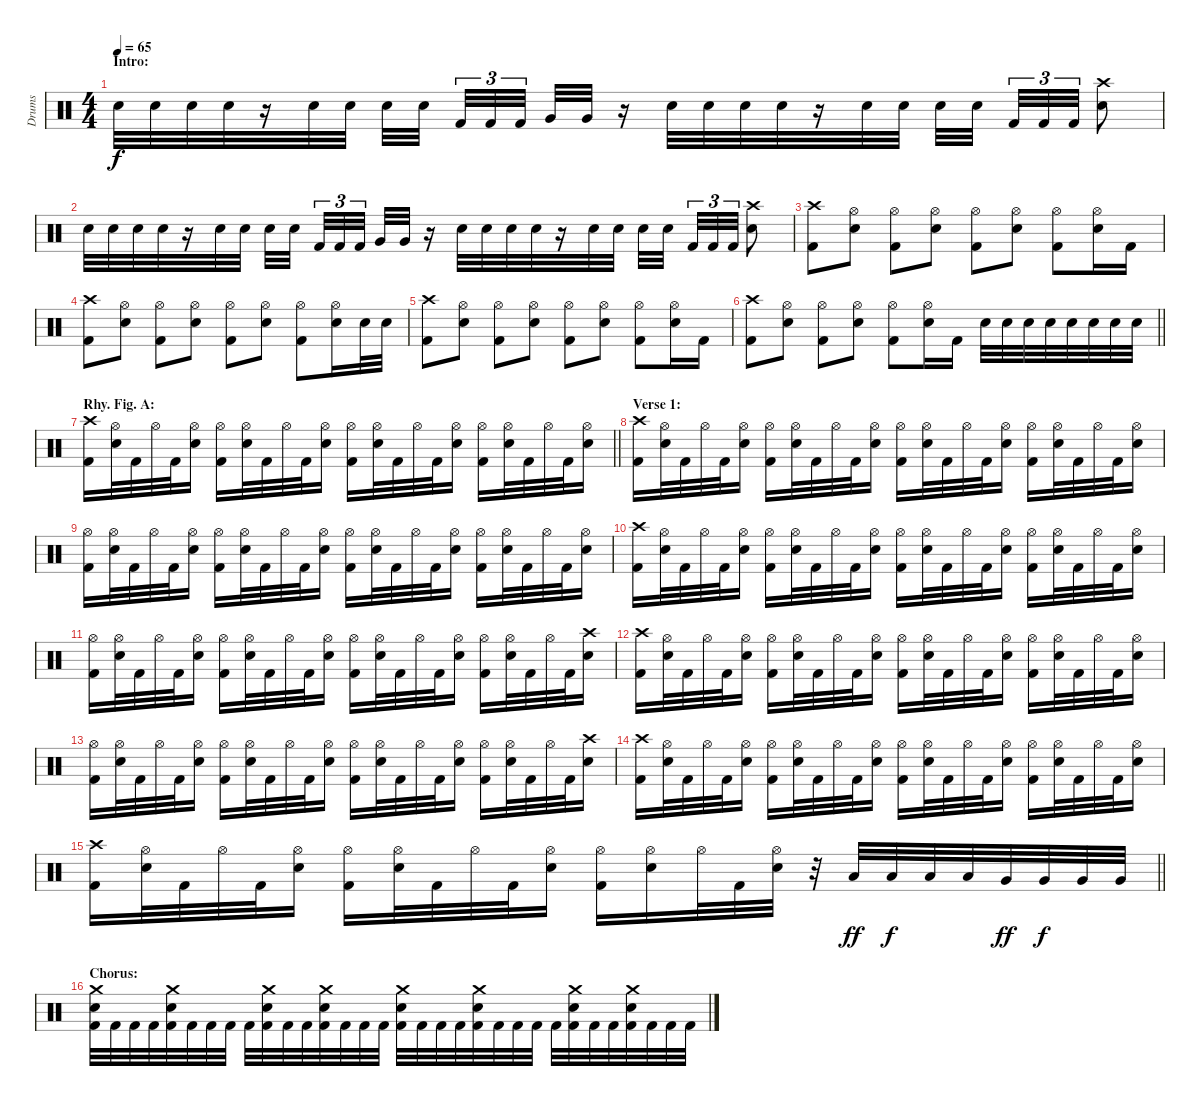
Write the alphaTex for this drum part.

\track ("Drums" "Drums") {instrument percussion}
\staff {score}
\articulation defaults
\ts (4 4)
\section ("" "Intro:")
\tempo 65
\clef neutral
\ks c "Snare (hit) 2".32{dy f} "Snare (hit) 2".32 "Snare (hit) 2".32 "Snare (hit) 2".32
r.16 "Snare (hit) 2".32 "Snare (hit) 2".32 "Snare (hit) 2".32 "Snare (hit) 2".32 "Kick (hit) 2".32{tu (3 2)} "Kick (hit) 2".32{tu (3 2)} "Kick (hit) 2".32{tu (3 2)} "Very Low Tom (hit)".32 "Very Low Tom (hit)".32 r.16 "Snare (hit) 2".32 "Snare (hit) 2".32 "Snare (hit) 2".32 "Snare (hit) 2".32 r.16 "Snare (hit) 2".32 "Snare (hit) 2".32 "Snare (hit) 2".32 "Snare (hit) 2".32 "Kick (hit) 2".32{tu (3 2)} "Kick (hit) 2".32{tu (3 2)} "Kick (hit) 2".32{tu (3 2)} ("Crash high (hit)" "Snare (hit) 2").8 |
"Snare (hit) 2".32 "Snare (hit) 2".32 "Snare (hit) 2".32 "Snare (hit) 2".32 r.16 "Snare (hit) 2".32 "Snare (hit) 2".32 "Snare (hit) 2".32 "Snare (hit) 2".32 "Kick (hit) 2".32{tu (3 2)} "Kick (hit) 2".32{tu (3 2)} "Kick (hit) 2".32{tu (3 2)} "Very Low Tom (hit)".32 "Very Low Tom (hit)".32 r.16 "Snare (hit) 2".32 "Snare (hit) 2".32 "Snare (hit) 2".32 "Snare (hit) 2".32 r.16 "Snare (hit) 2".32 "Snare (hit) 2".32 "Snare (hit) 2".32 "Snare (hit) 2".32 "Kick (hit) 2".32{tu (3 2)} "Kick (hit) 2".32{tu (3 2)} "Kick (hit) 2".32{tu (3 2)} ("Crash high (hit)" "Snare (hit) 2").8 |
("Crash high (hit)" "Kick (hit) 2").8 ("Hi-Hat (open)" "Snare (hit) 2").8 ("Hi-Hat (open)" "Kick (hit) 2").8 ("Hi-Hat (open)" "Snare (hit) 2").8 ("Hi-Hat (open)" "Kick (hit) 2").8 ("Hi-Hat (open)" "Snare (hit) 2").8 ("Hi-Hat (open)" "Kick (hit) 2").8 ("Hi-Hat (open)" "Snare (hit) 2").16 "Kick (hit) 2".16 |
("Crash high (hit)" "Kick (hit) 2").8 ("Hi-Hat (open)" "Snare (hit) 2").8 ("Hi-Hat (open)" "Kick (hit) 2").8 ("Hi-Hat (open)" "Snare (hit) 2").8 ("Hi-Hat (open)" "Kick (hit) 2").8 ("Hi-Hat (open)" "Snare (hit) 2").8 ("Hi-Hat (open)" "Kick (hit) 2").8 ("Hi-Hat (open)" "Snare (hit) 2").16 "Snare (hit) 2".32 "Snare (hit) 2".32 |
("Crash high (hit)" "Kick (hit) 2").8 ("Hi-Hat (open)" "Snare (hit) 2").8 ("Hi-Hat (open)" "Kick (hit) 2").8 ("Hi-Hat (open)" "Snare (hit) 2").8 ("Hi-Hat (open)" "Kick (hit) 2").8 ("Hi-Hat (open)" "Snare (hit) 2").8 ("Hi-Hat (open)" "Kick (hit) 2").8 ("Hi-Hat (open)" "Snare (hit) 2").16 "Kick (hit) 2".16 |
\barLineRight lightlight
("Crash high (hit)" "Kick (hit) 2").8 ("Hi-Hat (open)" "Snare (hit) 2").8 ("Hi-Hat (open)" "Kick (hit) 2").8 ("Hi-Hat (open)" "Snare (hit) 2").8 ("Hi-Hat (open)" "Kick (hit) 2").8 ("Hi-Hat (open)" "Snare (hit) 2").16 "Kick (hit) 2".16 "Snare (hit) 2".32 "Snare (hit) 2".32 "Snare (hit) 2".32 "Snare (hit) 2".32 "Snare (hit) 2".32 "Snare (hit) 2".32 "Snare (hit) 2".32 "Snare (hit) 2".32 |
\section ("" "Rhy. Fig. A:")
\barLineRight lightlight
("Crash high (hit)" "Kick (hit) 2").16 ("Hi-Hat (open)" "Snare (hit) 2").32 "Kick (hit) 2".32 "Hi-Hat (open)".32 "Kick (hit) 2".32 ("Hi-Hat (open)" "Snare (hit) 2").16 ("Hi-Hat (open)" "Kick (hit) 2").16 ("Hi-Hat (open)" "Snare (hit) 2").32 "Kick (hit) 2".32 "Hi-Hat (open)".32 "Kick (hit) 2".32 ("Hi-Hat (open)" "Snare (hit) 2").16 ("Hi-Hat (open)" "Kick (hit) 2").16 ("Hi-Hat (open)" "Snare (hit) 2").32 "Kick (hit) 2".32 "Hi-Hat (open)".32 "Kick (hit) 2".32 ("Hi-Hat (open)" "Snare (hit) 2").16 ("Hi-Hat (open)" "Kick (hit) 2").16 ("Hi-Hat (open)" "Snare (hit) 2").32 "Kick (hit) 2".32 "Hi-Hat (open)".32 "Kick (hit) 2".32 ("Hi-Hat (open)" "Snare (hit) 2").16 |
\section ("" "Verse 1:")
("Crash high (hit)" "Kick (hit) 2").16 ("Hi-Hat (open)" "Snare (hit) 2").32 "Kick (hit) 2".32 "Hi-Hat (open)".32 "Kick (hit) 2".32 ("Hi-Hat (open)" "Snare (hit) 2").16 ("Hi-Hat (open)" "Kick (hit) 2").16 ("Hi-Hat (open)" "Snare (hit) 2").32 "Kick (hit) 2".32 "Hi-Hat (open)".32 "Kick (hit) 2".32 ("Hi-Hat (open)" "Snare (hit) 2").16 ("Hi-Hat (open)" "Kick (hit) 2").16 ("Hi-Hat (open)" "Snare (hit) 2").32 "Kick (hit) 2".32 "Hi-Hat (open)".32 "Kick (hit) 2".32 ("Hi-Hat (open)" "Snare (hit) 2").16 ("Hi-Hat (open)" "Kick (hit) 2").16 ("Hi-Hat (open)" "Snare (hit) 2").32 "Kick (hit) 2".32 "Hi-Hat (open)".32 "Kick (hit) 2".32 ("Hi-Hat (open)" "Snare (hit) 2").16 |
("Hi-Hat (open)" "Kick (hit) 2").16 ("Hi-Hat (open)" "Snare (hit) 2").32 "Kick (hit) 2".32 "Hi-Hat (open)".32 "Kick (hit) 2".32 ("Hi-Hat (open)" "Snare (hit) 2").16 ("Hi-Hat (open)" "Kick (hit) 2").16 ("Hi-Hat (open)" "Snare (hit) 2").32 "Kick (hit) 2".32 "Hi-Hat (open)".32 "Kick (hit) 2".32 ("Hi-Hat (open)" "Snare (hit) 2").16 ("Hi-Hat (open)" "Kick (hit) 2").16 ("Hi-Hat (open)" "Snare (hit) 2").32 "Kick (hit) 2".32 "Hi-Hat (open)".32 "Kick (hit) 2".32 ("Hi-Hat (open)" "Snare (hit) 2").16 ("Hi-Hat (open)" "Kick (hit) 2").16 ("Hi-Hat (open)" "Snare (hit) 2").32 "Kick (hit) 2".32 "Hi-Hat (open)".32 "Kick (hit) 2".32 ("Hi-Hat (open)" "Snare (hit) 2").16 |
("Crash high (hit)" "Kick (hit) 2").16 ("Hi-Hat (open)" "Snare (hit) 2").32 "Kick (hit) 2".32 "Hi-Hat (open)".32 "Kick (hit) 2".32 ("Hi-Hat (open)" "Snare (hit) 2").16 ("Hi-Hat (open)" "Kick (hit) 2").16 ("Hi-Hat (open)" "Snare (hit) 2").32 "Kick (hit) 2".32 "Hi-Hat (open)".32 "Kick (hit) 2".32 ("Hi-Hat (open)" "Snare (hit) 2").16 ("Hi-Hat (open)" "Kick (hit) 2").16 ("Hi-Hat (open)" "Snare (hit) 2").32 "Kick (hit) 2".32 "Hi-Hat (open)".32 "Kick (hit) 2".32 ("Hi-Hat (open)" "Snare (hit) 2").16 ("Hi-Hat (open)" "Kick (hit) 2").16 ("Hi-Hat (open)" "Snare (hit) 2").32 "Kick (hit) 2".32 "Hi-Hat (open)".32 "Kick (hit) 2".32 ("Hi-Hat (open)" "Snare (hit) 2").16 |
("Hi-Hat (open)" "Kick (hit) 2").16 ("Hi-Hat (open)" "Snare (hit) 2").32 "Kick (hit) 2".32 "Hi-Hat (open)".32 "Kick (hit) 2".32 ("Hi-Hat (open)" "Snare (hit) 2").16 ("Hi-Hat (open)" "Kick (hit) 2").16 ("Hi-Hat (open)" "Snare (hit) 2").32 "Kick (hit) 2".32 "Hi-Hat (open)".32 "Kick (hit) 2".32 ("Hi-Hat (open)" "Snare (hit) 2").16 ("Hi-Hat (open)" "Kick (hit) 2").16 ("Hi-Hat (open)" "Snare (hit) 2").32 "Kick (hit) 2".32 "Hi-Hat (open)".32 "Kick (hit) 2".32 ("Hi-Hat (open)" "Snare (hit) 2").16 ("Hi-Hat (open)" "Kick (hit) 2").16 ("Hi-Hat (open)" "Snare (hit) 2").32 "Kick (hit) 2".32 "Hi-Hat (open)".32 "Kick (hit) 2".32 ("Crash high (hit)" "Snare (hit) 2").16 |
("Crash high (hit)" "Kick (hit) 2").16 ("Hi-Hat (open)" "Snare (hit) 2").32 "Kick (hit) 2".32 "Hi-Hat (open)".32 "Kick (hit) 2".32 ("Hi-Hat (open)" "Snare (hit) 2").16 ("Hi-Hat (open)" "Kick (hit) 2").16 ("Hi-Hat (open)" "Snare (hit) 2").32 "Kick (hit) 2".32 "Hi-Hat (open)".32 "Kick (hit) 2".32 ("Hi-Hat (open)" "Snare (hit) 2").16 ("Hi-Hat (open)" "Kick (hit) 2").16 ("Hi-Hat (open)" "Snare (hit) 2").32 "Kick (hit) 2".32 "Hi-Hat (open)".32 "Kick (hit) 2".32 ("Hi-Hat (open)" "Snare (hit) 2").16 ("Hi-Hat (open)" "Kick (hit) 2").16 ("Hi-Hat (open)" "Snare (hit) 2").32 "Kick (hit) 2".32 "Hi-Hat (open)".32 "Kick (hit) 2".32 ("Hi-Hat (open)" "Snare (hit) 2").16 |
("Hi-Hat (open)" "Kick (hit) 2").16 ("Hi-Hat (open)" "Snare (hit) 2").32 "Kick (hit) 2".32 "Hi-Hat (open)".32 "Kick (hit) 2".32 ("Hi-Hat (open)" "Snare (hit) 2").16 ("Hi-Hat (open)" "Kick (hit) 2").16 ("Hi-Hat (open)" "Snare (hit) 2").32 "Kick (hit) 2".32 "Hi-Hat (open)".32 "Kick (hit) 2".32 ("Hi-Hat (open)" "Snare (hit) 2").16 ("Hi-Hat (open)" "Kick (hit) 2").16 ("Hi-Hat (open)" "Snare (hit) 2").32 "Kick (hit) 2".32 "Hi-Hat (open)".32 "Kick (hit) 2".32 ("Hi-Hat (open)" "Snare (hit) 2").16 ("Hi-Hat (open)" "Kick (hit) 2").16 ("Hi-Hat (open)" "Snare (hit) 2").32 "Kick (hit) 2".32 "Hi-Hat (open)".32 "Kick (hit) 2".32 ("Crash high (hit)" "Snare (hit) 2").16 |
("Crash high (hit)" "Kick (hit) 2").16 ("Hi-Hat (open)" "Snare (hit) 2").32 "Kick (hit) 2".32 "Hi-Hat (open)".32 "Kick (hit) 2".32 ("Hi-Hat (open)" "Snare (hit) 2").16 ("Hi-Hat (open)" "Kick (hit) 2").16 ("Hi-Hat (open)" "Snare (hit) 2").32 "Kick (hit) 2".32 "Hi-Hat (open)".32 "Kick (hit) 2".32 ("Hi-Hat (open)" "Snare (hit) 2").16 ("Hi-Hat (open)" "Kick (hit) 2").16 ("Hi-Hat (open)" "Snare (hit) 2").32 "Kick (hit) 2".32 "Hi-Hat (open)".32 "Kick (hit) 2".32 ("Hi-Hat (open)" "Snare (hit) 2").16 ("Hi-Hat (open)" "Kick (hit) 2").16 ("Hi-Hat (open)" "Snare (hit) 2").32 "Kick (hit) 2".32 "Hi-Hat (open)".32 "Kick (hit) 2".32 ("Hi-Hat (open)" "Snare (hit) 2").16 |
\barLineRight lightlight
("Crash high (hit)" "Kick (hit) 2").16 ("Hi-Hat (open)" "Snare (hit) 2").32 "Kick (hit) 2".32 "Hi-Hat (open)".32 "Kick (hit) 2".32 ("Hi-Hat (open)" "Snare (hit) 2").16 ("Hi-Hat (open)" "Kick (hit) 2").16 ("Hi-Hat (open)" "Snare (hit) 2").32 "Kick (hit) 2".32 "Hi-Hat (open)".32 "Kick (hit) 2".32 ("Hi-Hat (open)" "Snare (hit) 2").16 ("Hi-Hat (open)" "Kick (hit) 2").16 ("Hi-Hat (open)" "Snare (hit) 2").16 "Hi-Hat (open)".32 "Kick (hit) 2".32 ("Hi-Hat (open)" "Snare (hit) 2").32 r.32 "Low Tom (hit)".32{dy ff} "Low Tom (hit)".32{dy f} "Low Tom (hit)".32 "Low Tom (hit)".32 "Very Low Tom (hit)".32{dy ff} "Very Low Tom (hit)".32{dy f} "Very Low Tom (hit)".32 "Very Low Tom (hit)".32 |
\section ("" "Chorus:")
("Crash medium (hit)" "Snare (hit) 2" "Kick (hit) 2").32 "Kick (hit) 2".32 "Kick (hit) 2".32 "Kick (hit) 2".32 ("Crash medium (hit)" "Snare (hit) 2" "Kick (hit) 2").32 "Kick (hit) 2".32 "Kick (hit) 2".32 "Kick (hit) 2".32 "Kick (hit) 2".32 ("Crash medium (hit)" "Snare (hit) 2" "Kick (hit) 2").32 "Kick (hit) 2".32 "Kick (hit) 2".32 ("Crash medium (hit)" "Snare (hit) 2" "Kick (hit) 2").32 "Kick (hit) 2".32 "Kick (hit) 2".32 "Kick (hit) 2".32 ("Crash medium (hit)" "Snare (hit) 2" "Kick (hit) 2").32 "Kick (hit) 2".32 "Kick (hit) 2".32 "Kick (hit) 2".32 ("Crash medium (hit)" "Snare (hit) 2" "Kick (hit) 2").32 "Kick (hit) 2".32 "Kick (hit) 2".32 "Kick (hit) 2".32 "Kick (hit) 2".32 ("Crash medium (hit)" "Snare (hit) 2" "Kick (hit) 2").32 "Kick (hit) 2".32 "Kick (hit) 2".32 ("Crash medium (hit)" "Snare (hit) 2" "Kick (hit) 2").32 "Kick (hit) 2".32 "Kick (hit) 2".32 "Kick (hit) 2".32
